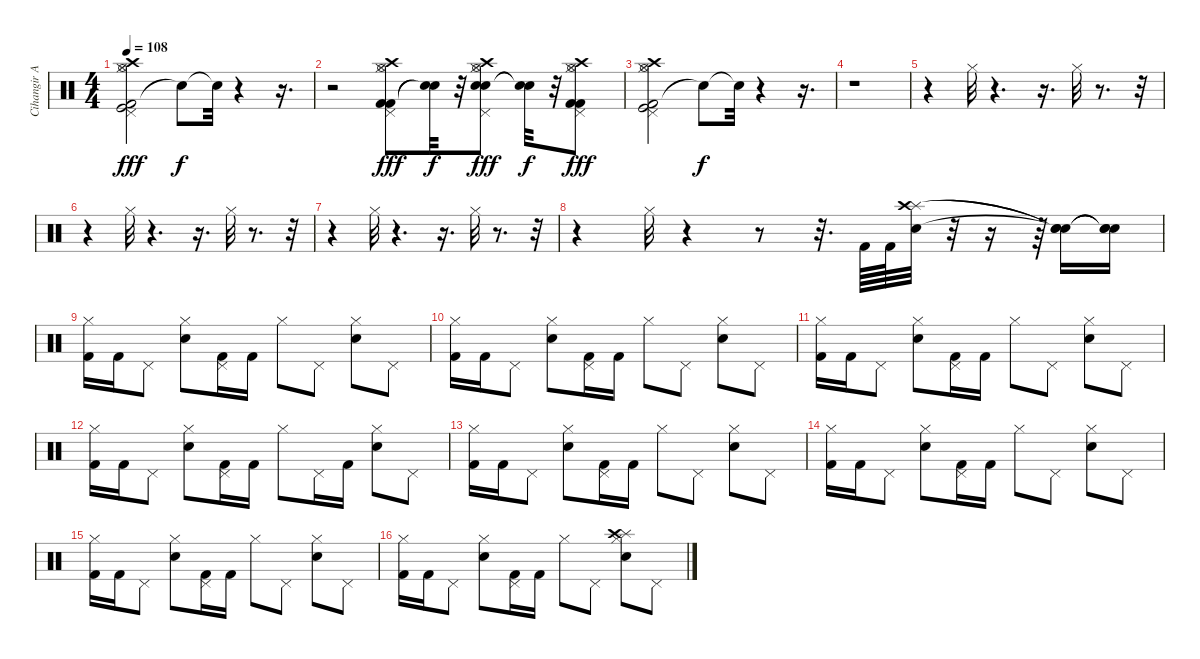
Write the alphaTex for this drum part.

\track ("Cihangir Akkuzu (Drums)" "Cihangir A") {instrument percussion}
\staff {score}
\articulation defaults
\ts (4 4)
\tempo 108
\clef neutral
\ks c
("Kick (hit) 2" "Kick (hit)" "Crash high (hit)" "Pedal Hi-Hat (hit)" "Hi-Hat (open)" "Hi-Hat (closed)").2{dy fff} "Snare (hit)"{t}.8{dy f} "Snare (hit)"{t}.32 r.4 r.16{d} |
r.2 ("Kick (hit) 2" "Kick (hit) 2" "Crash high (hit)" "Pedal Hi-Hat (hit)" "Hi-Hat (open)" "Hi-Hat (closed)").8{dy fff} ("Snare (hit)"{t} "Snare (hit)"{t}).32{dy f} r.32 ("Snare (hit) 2" "Snare (hit) 2" "Crash high (hit)" "Pedal Hi-Hat (hit)" "Hi-Hat (open)" "Hi-Hat (closed)").8{dy fff} ("Snare (hit)"{t} "Snare (hit)"{t}).32{dy f} r.32 ("Kick (hit) 2" "Crash high (hit)" "Pedal Hi-Hat (hit)" "Hi-Hat (open)" "Hi-Hat (closed)" "Kick (hit) 2").8{dy fff} |
("Kick (hit) 2" "Kick (hit)" "Crash high (hit)" "Pedal Hi-Hat (hit)" "Hi-Hat (open)" "Hi-Hat (closed)").2 "Snare (hit)"{t}.8{dy f} "Snare (hit)"{t}.32 r.4 r.16{d} |
r.1 |
r.4 "Hi-Hat (closed)".32 r.4{d} r.16{d} "Hi-Hat (closed)".32 r.8{d} r.32 |
r.4 "Hi-Hat (closed)".32 r.4{d} r.16{d} "Hi-Hat (closed)".32 r.8{d} r.32 |
r.4 "Hi-Hat (closed)".32 r.4{d} r.16{d} "Hi-Hat (closed)".32 r.8{d} r.32 |
r.4 "Hi-Hat (closed)".32 r.4 r.8 r.32{d} "Kick (hit) 2".64 "Kick (hit) 2".64 ("Snare (hit) 2" "Splash (hit)" "Crash high (hit)").32 r.32 r.16 r.64 ("Snare (hit)"{t} "Snare (hit)"{t} "Snare (hit)"{t}).16 ("Snare (hit)"{t} "Snare (hit)"{t} "Snare (hit)"{t}).16 |
("Kick (hit) 2" "Hi-Hat (closed)").16 "Kick (hit) 2".16 "Pedal Hi-Hat (hit)".8 ("Snare (hit) 2" "Hi-Hat (closed)").8 ("Kick (hit) 2" "Pedal Hi-Hat (hit)").16 "Kick (hit) 2".16 "Hi-Hat (closed)".8 "Pedal Hi-Hat (hit)".8 ("Snare (hit) 2" "Hi-Hat (closed)").8 "Pedal Hi-Hat (hit)".8 |
("Kick (hit) 2" "Hi-Hat (closed)").16 "Kick (hit) 2".16 "Pedal Hi-Hat (hit)".8 ("Snare (hit) 2" "Hi-Hat (closed)").8 ("Kick (hit) 2" "Pedal Hi-Hat (hit)").16 "Kick (hit) 2".16 "Hi-Hat (closed)".8 "Pedal Hi-Hat (hit)".8 ("Snare (hit) 2" "Hi-Hat (closed)").8 "Pedal Hi-Hat (hit)".8 |
("Kick (hit) 2" "Hi-Hat (closed)").16 "Kick (hit) 2".16 "Pedal Hi-Hat (hit)".8 ("Snare (hit) 2" "Hi-Hat (closed)").8 ("Kick (hit) 2" "Pedal Hi-Hat (hit)").16 "Kick (hit) 2".16 "Hi-Hat (closed)".8 "Pedal Hi-Hat (hit)".8 ("Snare (hit) 2" "Hi-Hat (closed)").8 "Pedal Hi-Hat (hit)".8 |
("Kick (hit) 2" "Hi-Hat (closed)").16 "Kick (hit) 2".16 "Pedal Hi-Hat (hit)".8 ("Snare (hit) 2" "Hi-Hat (closed)").8 ("Kick (hit) 2" "Pedal Hi-Hat (hit)").16 "Kick (hit) 2".16 "Hi-Hat (closed)".8 "Pedal Hi-Hat (hit)".16 "Kick (hit) 2".16 ("Snare (hit) 2" "Hi-Hat (closed)").8 "Pedal Hi-Hat (hit)".8 |
("Kick (hit) 2" "Hi-Hat (closed)").16 "Kick (hit) 2".16 "Pedal Hi-Hat (hit)".8 ("Snare (hit) 2" "Hi-Hat (closed)").8 ("Kick (hit) 2" "Pedal Hi-Hat (hit)").16 "Kick (hit) 2".16 "Hi-Hat (closed)".8 "Pedal Hi-Hat (hit)".8 ("Snare (hit) 2" "Hi-Hat (closed)").8 "Pedal Hi-Hat (hit)".8 |
("Kick (hit) 2" "Hi-Hat (closed)").16 "Kick (hit) 2".16 "Pedal Hi-Hat (hit)".8 ("Snare (hit) 2" "Hi-Hat (closed)").8 ("Kick (hit) 2" "Pedal Hi-Hat (hit)").16 "Kick (hit) 2".16 "Hi-Hat (closed)".8 "Pedal Hi-Hat (hit)".8 ("Snare (hit) 2" "Hi-Hat (closed)").8 "Pedal Hi-Hat (hit)".8 |
("Kick (hit) 2" "Hi-Hat (closed)").16 "Kick (hit) 2".16 "Pedal Hi-Hat (hit)".8 ("Snare (hit) 2" "Hi-Hat (closed)").8 ("Kick (hit) 2" "Pedal Hi-Hat (hit)").16 "Kick (hit) 2".16 "Hi-Hat (closed)".8 "Pedal Hi-Hat (hit)".8 ("Snare (hit) 2" "Hi-Hat (closed)").8 "Pedal Hi-Hat (hit)".8 |
("Kick (hit) 2" "Hi-Hat (closed)").16 "Kick (hit) 2".16 "Pedal Hi-Hat (hit)".8 ("Snare (hit) 2" "Hi-Hat (closed)").8 ("Kick (hit) 2" "Pedal Hi-Hat (hit)").16 "Kick (hit) 2".16 "Hi-Hat (closed)".8 "Pedal Hi-Hat (hit)".8 ("Snare (hit) 2" "Hi-Hat (closed)" "Splash (hit)" "Crash high (hit)").8 "Pedal Hi-Hat (hit)".8
